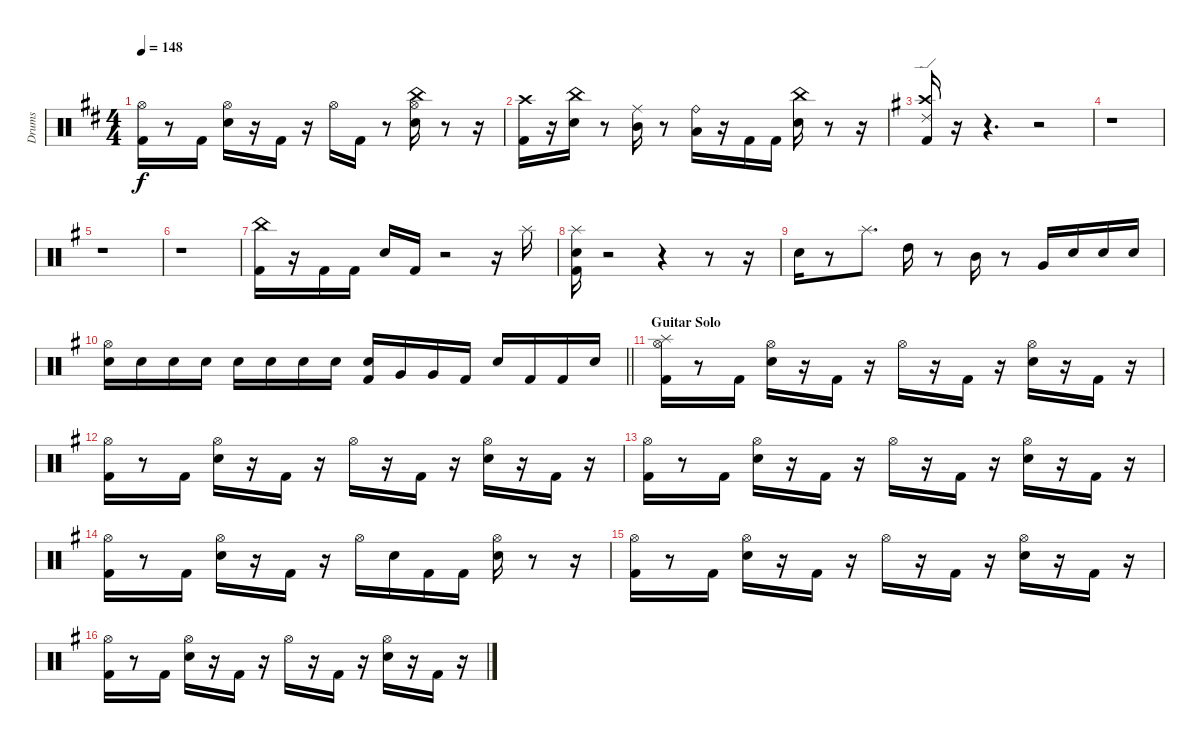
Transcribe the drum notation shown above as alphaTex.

\track ("Drums" "Drums") {instrument percussion}
\staff {score}
\articulation defaults
\ts (4 4)
\tempo 148
\clef neutral
\ks d
("Hi-Hat (open)" "Kick (hit) 2").16{dy f} r.8 "Kick (hit) 2".16 ("Hi-Hat (open)" "Snare (hit) 2").16 r.16 "Kick (hit) 2".16 r.16 "Hi-Hat (open)".16 "Kick (hit) 2".16 r.8 ("Hi-Hat (open)" "China (hit)" "Snare (hit) 2").16 r.8 r.16 |
("Crash high (hit)" "Kick (hit) 2").16 r.16 ("China (hit)" "Snare (hit) 2").16 r.8 ("Mid Tom (hit)" "Ride (middle)").16 r.8 ("Low Tom (hit)" "Ride (bell)").16 r.16 "Kick (hit) 2".16 "Kick (hit) 2".16 ("China (hit)" "Snare (hit) 2").16 r.8 r.16 |
\ks g
("Ride (edge) 2" "Crash high (hit)" "Kick (hit) 2").16 r.16 r.4{d} r.2 |
r.1 |
r.1 |
r.1 |
("China (hit)" "Kick (hit) 2").16 r.16 "Kick (hit) 2".16 "Kick (hit) 2".16 "Snare (hit) 2".16 "Kick (hit) 2".16 r.2 r.16 "Splash (hit)".16 |
("Splash (hit)" "Kick (hit) 2" "Snare (hit) 2").16 r.2 r.4 r.8 r.16 |
"Snare (hit) 2".16 r.8 "Splash (hit)".8{d} "High Tom (hit)".16 r.8 "Mid Tom (hit)".16 r.8 "Very Low Tom (hit)".16 "Snare (hit) 2".16 "Snare (hit) 2".16 "Snare (hit) 2".16 |
\barLineRight lightlight
("Hi-Hat (open)" "Snare (hit) 2").16 "Snare (hit) 2".16 "Snare (hit) 2".16 "Snare (hit) 2".16 "Snare (hit) 2".16 "Snare (hit) 2".16 "Snare (hit) 2".16 "Snare (hit) 2".16 ("Kick (hit) 2" "Snare (hit) 2").16 "Very Low Tom (hit)".16 "Very Low Tom (hit)".16 "Kick (hit) 2".16 "Snare (hit) 2".16 "Kick (hit) 2".16 "Kick (hit) 2".16 "Snare (hit) 2".16 |
\section ("" "Guitar Solo")
("Hi-Hat (open)" "Splash (hit)" "Kick (hit) 2").16 r.8 "Kick (hit) 2".16 ("Hi-Hat (open)" "Snare (hit) 2").16 r.16 "Kick (hit) 2".16 r.16 "Hi-Hat (open)".16 r.16 "Kick (hit) 2".16 r.16 ("Hi-Hat (open)" "Snare (hit) 2").16 r.16 "Kick (hit) 2".16 r.16 |
("Hi-Hat (open)" "Kick (hit) 2").16 r.8 "Kick (hit) 2".16 ("Hi-Hat (open)" "Snare (hit) 2").16 r.16 "Kick (hit) 2".16 r.16 "Hi-Hat (open)".16 r.16 "Kick (hit) 2".16 r.16 ("Hi-Hat (open)" "Snare (hit) 2").16 r.16 "Kick (hit) 2".16 r.16 |
("Hi-Hat (open)" "Kick (hit) 2").16 r.8 "Kick (hit) 2".16 ("Hi-Hat (open)" "Snare (hit) 2").16 r.16 "Kick (hit) 2".16 r.16 "Hi-Hat (open)".16 r.16 "Kick (hit) 2".16 r.16 ("Hi-Hat (open)" "Snare (hit) 2").16 r.16 "Kick (hit) 2".16 r.16 |
("Hi-Hat (open)" "Kick (hit) 2").16 r.8 "Kick (hit) 2".16 ("Hi-Hat (open)" "Snare (hit) 2").16 r.16 "Kick (hit) 2".16 r.16 "Hi-Hat (open)".16 "Snare (hit) 2".16 "Kick (hit) 2".16 "Kick (hit) 2".16 ("Hi-Hat (open)" "Snare (hit) 2").16 r.8 r.16 |
("Hi-Hat (open)" "Kick (hit) 2").16 r.8 "Kick (hit) 2".16 ("Hi-Hat (open)" "Snare (hit) 2").16 r.16 "Kick (hit) 2".16 r.16 "Hi-Hat (open)".16 r.16 "Kick (hit) 2".16 r.16 ("Hi-Hat (open)" "Snare (hit) 2").16 r.16 "Kick (hit) 2".16 r.16 |
("Hi-Hat (open)" "Kick (hit) 2").16 r.8 "Kick (hit) 2".16 ("Hi-Hat (open)" "Snare (hit) 2").16 r.16 "Kick (hit) 2".16 r.16 "Hi-Hat (open)".16 r.16 "Kick (hit) 2".16 r.16 ("Hi-Hat (open)" "Snare (hit) 2").16 r.16 "Kick (hit) 2".16 r.16
